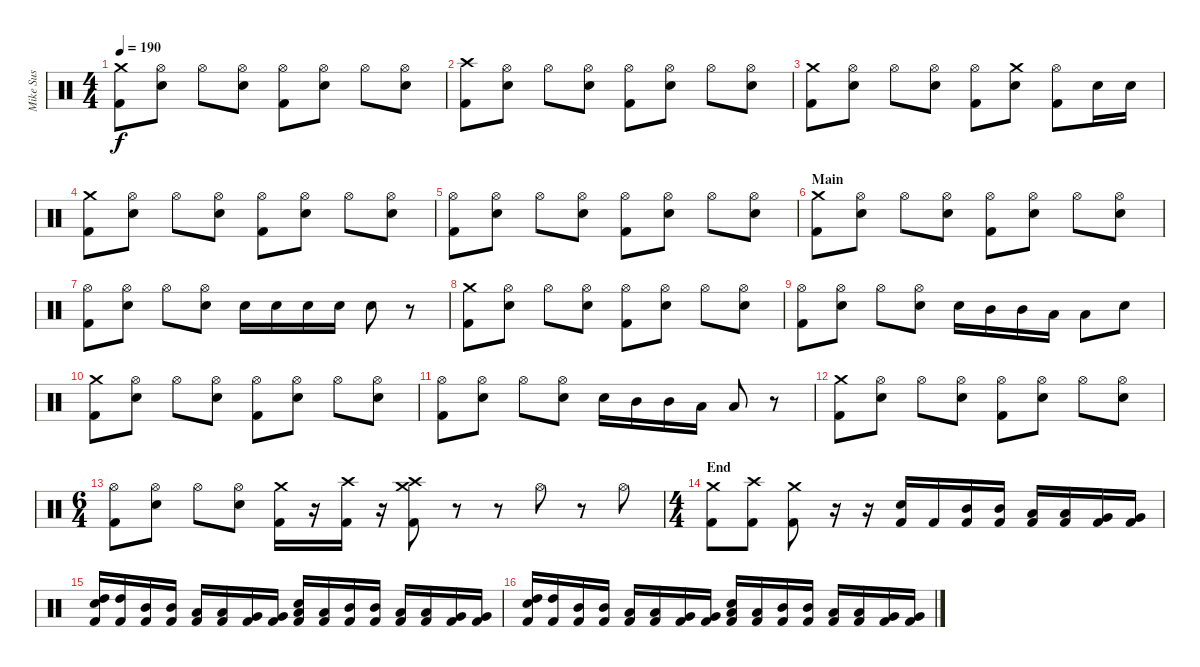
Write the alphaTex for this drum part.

\track ("Mike Sus" "Mike Sus") {instrument percussion}
\staff {score}
\articulation defaults
\ts (4 4)
\tempo 190
\clef neutral
\ks c
("Crash medium (hit)" "Kick (hit) 2").8{dy f} ("Hi-Hat (open)" "Electric Snare (hit)").8 "Hi-Hat (open)".8 ("Hi-Hat (open)" "Electric Snare (hit)").8 ("Hi-Hat (open)" "Kick (hit) 2").8 ("Hi-Hat (open)" "Electric Snare (hit)").8 "Hi-Hat (open)".8 ("Hi-Hat (open)" "Electric Snare (hit)").8 |
("Crash high (hit)" "Kick (hit) 2").8 ("Hi-Hat (open)" "Electric Snare (hit)").8 "Hi-Hat (open)".8 ("Hi-Hat (open)" "Electric Snare (hit)").8 ("Hi-Hat (open)" "Kick (hit) 2").8 ("Hi-Hat (open)" "Electric Snare (hit)").8 "Hi-Hat (open)".8 ("Hi-Hat (open)" "Electric Snare (hit)").8 |
("Crash medium (hit)" "Kick (hit) 2").8 ("Hi-Hat (open)" "Electric Snare (hit)").8 "Hi-Hat (open)".8 ("Hi-Hat (open)" "Electric Snare (hit)").8 ("Hi-Hat (open)" "Kick (hit) 2").8 ("Crash medium (hit)" "Electric Snare (hit)").8 ("Hi-Hat (open)" "Kick (hit) 2").8 "Electric Snare (hit)".16 "Electric Snare (hit)".16 |
("Crash medium (hit)" "Kick (hit) 2").8 ("Hi-Hat (open)" "Electric Snare (hit)").8 "Hi-Hat (open)".8 ("Hi-Hat (open)" "Electric Snare (hit)").8 ("Hi-Hat (open)" "Kick (hit) 2").8 ("Hi-Hat (open)" "Electric Snare (hit)").8 "Hi-Hat (open)".8 ("Hi-Hat (open)" "Electric Snare (hit)").8 |
("Hi-Hat (open)" "Kick (hit) 2").8 ("Hi-Hat (open)" "Electric Snare (hit)").8 "Hi-Hat (open)".8 ("Hi-Hat (open)" "Electric Snare (hit)").8 ("Hi-Hat (open)" "Kick (hit) 2").8 ("Hi-Hat (open)" "Electric Snare (hit)").8 "Hi-Hat (open)".8 ("Hi-Hat (open)" "Electric Snare (hit)").8 |
\section ("" "Main")
("Crash medium (hit)" "Kick (hit) 2").8 ("Hi-Hat (open)" "Electric Snare (hit)").8 "Hi-Hat (open)".8 ("Hi-Hat (open)" "Electric Snare (hit)").8 ("Hi-Hat (open)" "Kick (hit) 2").8 ("Hi-Hat (open)" "Electric Snare (hit)").8 "Hi-Hat (open)".8 ("Hi-Hat (open)" "Electric Snare (hit)").8 |
("Hi-Hat (open)" "Kick (hit) 2").8 ("Hi-Hat (open)" "Electric Snare (hit)").8 "Hi-Hat (open)".8 ("Hi-Hat (open)" "Electric Snare (hit)").8 "Electric Snare (hit)".16 "Electric Snare (hit)".16 "Electric Snare (hit)".16 "Electric Snare (hit)".16 "Electric Snare (hit)".8 r.8 |
("Crash medium (hit)" "Kick (hit) 2").8 ("Hi-Hat (open)" "Electric Snare (hit)").8 "Hi-Hat (open)".8 ("Hi-Hat (open)" "Electric Snare (hit)").8 ("Hi-Hat (open)" "Kick (hit) 2").8 ("Hi-Hat (open)" "Electric Snare (hit)").8 "Hi-Hat (open)".8 ("Hi-Hat (open)" "Electric Snare (hit)").8 |
("Hi-Hat (open)" "Kick (hit) 2").8 ("Hi-Hat (open)" "Electric Snare (hit)").8 "Hi-Hat (open)".8 ("Hi-Hat (open)" "Electric Snare (hit)").8 "Electric Snare (hit)".16 "Mid Tom (hit)".16 "Mid Tom (hit)".16 "Low Tom (hit)".16 "Low Tom (hit)".8 "Electric Snare (hit)".8 |
("Crash medium (hit)" "Kick (hit) 2").8 ("Hi-Hat (open)" "Electric Snare (hit)").8 "Hi-Hat (open)".8 ("Hi-Hat (open)" "Electric Snare (hit)").8 ("Hi-Hat (open)" "Kick (hit) 2").8 ("Hi-Hat (open)" "Electric Snare (hit)").8 "Hi-Hat (open)".8 ("Hi-Hat (open)" "Electric Snare (hit)").8 |
("Hi-Hat (open)" "Kick (hit) 2").8 ("Hi-Hat (open)" "Electric Snare (hit)").8 "Hi-Hat (open)".8 ("Hi-Hat (open)" "Electric Snare (hit)").8 "Electric Snare (hit)".16 "Mid Tom (hit)".16 "Mid Tom (hit)".16 "Low Tom (hit)".16 "Low Tom (hit)".8 r.8 |
("Crash medium (hit)" "Kick (hit) 2").8 ("Hi-Hat (open)" "Electric Snare (hit)").8 "Hi-Hat (open)".8 ("Hi-Hat (open)" "Electric Snare (hit)").8 ("Hi-Hat (open)" "Kick (hit) 2").8 ("Hi-Hat (open)" "Electric Snare (hit)").8 "Hi-Hat (open)".8 ("Hi-Hat (open)" "Electric Snare (hit)").8 |
\ts (6 4)
("Hi-Hat (open)" "Kick (hit) 2").8 ("Hi-Hat (open)" "Electric Snare (hit)").8 "Hi-Hat (open)".8 ("Hi-Hat (open)" "Electric Snare (hit)").8 ("Crash medium (hit)" "Kick (hit) 2").16 r.16 ("Crash high (hit)" "Kick (hit) 2").16 r.16 ("Crash medium (hit)" "Crash high (hit)" "Kick (hit) 2").8 r.8 r.8 "Hi-Hat (open)".8 r.8 "Hi-Hat (open)".8 |
\ts (4 4)
\section ("" "End")
("Crash medium (hit)" "Kick (hit) 2").8 ("Crash high (hit)" "Kick (hit) 2").8 ("Crash medium (hit)" "Kick (hit) 2").8 r.16 r.16 ("Electric Snare (hit)" "Kick (hit) 2").16 "Kick (hit) 2".16 ("Mid Tom (hit)" "Kick (hit) 2").16 ("Mid Tom (hit)" "Kick (hit) 2").16 ("Low Tom (hit)" "Kick (hit) 2").16 ("Low Tom (hit)" "Kick (hit) 2").16 ("Very Low Tom (hit)" "Kick (hit) 2").16 ("Very Low Tom (hit)" "Kick (hit) 2").16 |
("High Tom (hit)" "Electric Snare (hit)" "Kick (hit) 2").16 ("High Tom (hit)" "Kick (hit) 2").16 ("Mid Tom (hit)" "Kick (hit) 2").16 ("Mid Tom (hit)" "Kick (hit) 2").16 ("Low Tom (hit)" "Kick (hit) 2").16 ("Low Tom (hit)" "Kick (hit) 2").16 ("Very Low Tom (hit)" "Kick (hit) 2").16 ("Very Low Tom (hit)" "Kick (hit) 2").16 ("Low Floor Tom (hit)" "Electric Snare (hit)" "Kick (hit) 2").16 ("Low Floor Tom (hit)" "Kick (hit) 2").16 ("Mid Tom (hit)" "Kick (hit) 2").16 ("Mid Tom (hit)" "Kick (hit) 2").16 ("Low Tom (hit)" "Kick (hit) 2").16 ("Low Tom (hit)" "Kick (hit) 2").16 ("Very Low Tom (hit)" "Kick (hit) 2").16 ("Very Low Tom (hit)" "Kick (hit) 2").16 |
("High Tom (hit)" "Electric Snare (hit)" "Kick (hit) 2").16 ("High Tom (hit)" "Kick (hit) 2").16 ("Mid Tom (hit)" "Kick (hit) 2").16 ("Mid Tom (hit)" "Kick (hit) 2").16 ("Low Tom (hit)" "Kick (hit) 2").16 ("Low Tom (hit)" "Kick (hit) 2").16 ("Very Low Tom (hit)" "Kick (hit) 2").16 ("Very Low Tom (hit)" "Kick (hit) 2").16 ("Low Floor Tom (hit)" "Electric Snare (hit)" "Kick (hit) 2").16 ("Low Floor Tom (hit)" "Kick (hit) 2").16 ("Mid Tom (hit)" "Kick (hit) 2").16 ("Mid Tom (hit)" "Kick (hit) 2").16 ("Low Tom (hit)" "Kick (hit) 2").16 ("Low Tom (hit)" "Kick (hit) 2").16 ("Very Low Tom (hit)" "Kick (hit) 2").16 ("Very Low Tom (hit)" "Kick (hit) 2").16
